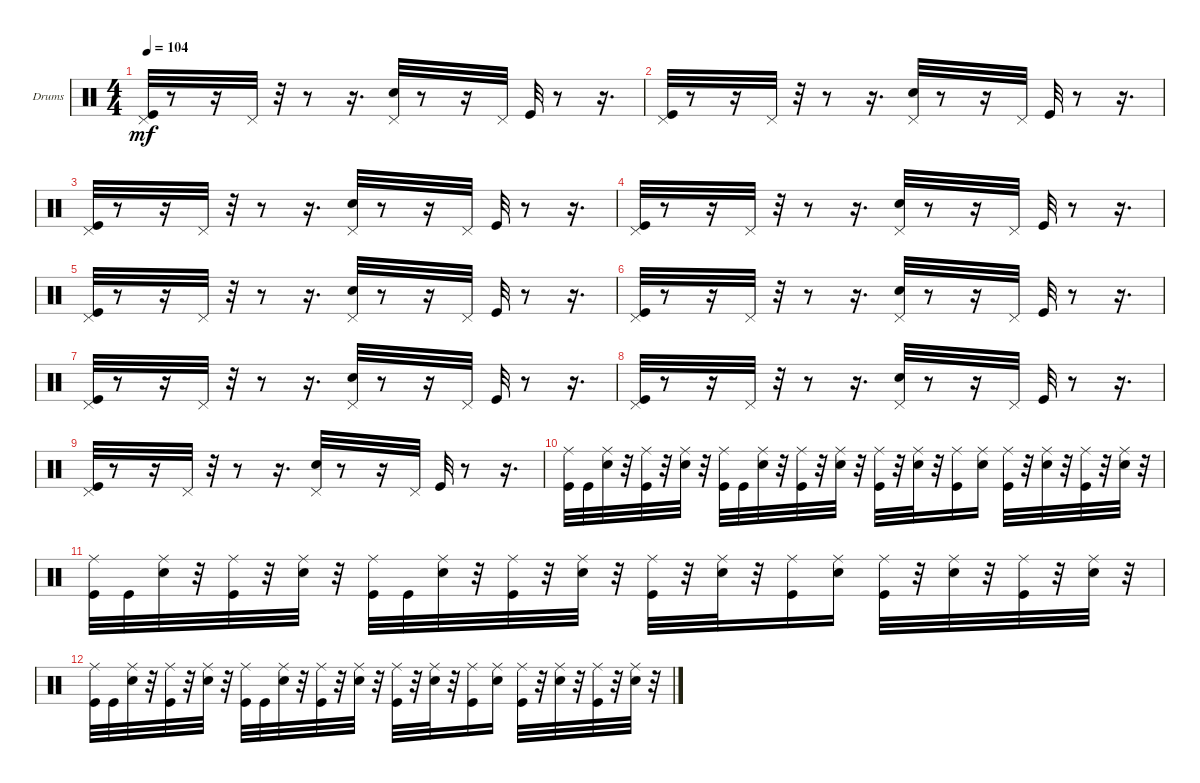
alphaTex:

\bracketExtendMode groupsimilarinstruments
\firstSystemTrackNameOrientation horizontal
\otherSystemsTrackNameOrientation horizontal
\track ("diviners drum" "Drums") {instrument percussion}
\staff {score}
\articulation defaults
\ts (4 4)
\tempo 104
\clef neutral
\ks c
("Kick (hit)" "Pedal Hi-Hat (hit)").32{dy mf} r.8 r.16 "Pedal Hi-Hat (hit)".32 r.32 r.8 r.16{d} ("Snare (hit) 2" "Pedal Hi-Hat (hit)").32 r.8 r.16 "Pedal Hi-Hat (hit)".32 "Kick (hit)".32 r.8 r.16{d} |
("Kick (hit)" "Pedal Hi-Hat (hit)").32 r.8 r.16 "Pedal Hi-Hat (hit)".32 r.32 r.8 r.16{d} ("Snare (hit) 2" "Pedal Hi-Hat (hit)").32 r.8 r.16 "Pedal Hi-Hat (hit)".32 "Kick (hit)".32 r.8 r.16{d} |
("Kick (hit)" "Pedal Hi-Hat (hit)").32 r.8 r.16 "Pedal Hi-Hat (hit)".32 r.32 r.8 r.16{d} ("Snare (hit) 2" "Pedal Hi-Hat (hit)").32 r.8 r.16 "Pedal Hi-Hat (hit)".32 "Kick (hit)".32 r.8 r.16{d} |
("Kick (hit)" "Pedal Hi-Hat (hit)").32 r.8 r.16 "Pedal Hi-Hat (hit)".32 r.32 r.8 r.16{d} ("Snare (hit) 2" "Pedal Hi-Hat (hit)").32 r.8 r.16 "Pedal Hi-Hat (hit)".32 "Kick (hit)".32 r.8 r.16{d} |
("Kick (hit)" "Pedal Hi-Hat (hit)").32 r.8 r.16 "Pedal Hi-Hat (hit)".32 r.32 r.8 r.16{d} ("Snare (hit) 2" "Pedal Hi-Hat (hit)").32 r.8 r.16 "Pedal Hi-Hat (hit)".32 "Kick (hit)".32 r.8 r.16{d} |
("Kick (hit)" "Pedal Hi-Hat (hit)").32 r.8 r.16 "Pedal Hi-Hat (hit)".32 r.32 r.8 r.16{d} ("Snare (hit) 2" "Pedal Hi-Hat (hit)").32 r.8 r.16 "Pedal Hi-Hat (hit)".32 "Kick (hit)".32 r.8 r.16{d} |
("Kick (hit)" "Pedal Hi-Hat (hit)").32 r.8 r.16 "Pedal Hi-Hat (hit)".32 r.32 r.8 r.16{d} ("Snare (hit) 2" "Pedal Hi-Hat (hit)").32 r.8 r.16 "Pedal Hi-Hat (hit)".32 "Kick (hit)".32 r.8 r.16{d} |
("Kick (hit)" "Pedal Hi-Hat (hit)").32 r.8 r.16 "Pedal Hi-Hat (hit)".32 r.32 r.8 r.16{d} ("Snare (hit) 2" "Pedal Hi-Hat (hit)").32 r.8 r.16 "Pedal Hi-Hat (hit)".32 "Kick (hit)".32 r.8 r.16{d} |
("Kick (hit)" "Pedal Hi-Hat (hit)").32 r.8 r.16 "Pedal Hi-Hat (hit)".32 r.32 r.8 r.16{d} ("Snare (hit) 2" "Pedal Hi-Hat (hit)").32 r.8 r.16 "Pedal Hi-Hat (hit)".32 "Kick (hit)".32 r.8 r.16{d} |
("Kick (hit)" "Ride (middle)").32 "Kick (hit)".32 ("Snare (hit) 2" "Ride (middle)").32 r.32 ("Kick (hit)" "Ride (middle)").32 r.32 ("Snare (hit) 2" "Ride (middle)").32 r.32 ("Kick (hit)" "Ride (middle)").32 "Kick (hit)".32 ("Snare (hit) 2" "Ride (middle)").32 r.32 ("Kick (hit)" "Ride (middle)").32 r.32 ("Snare (hit) 2" "Ride (middle)").32 r.32 ("Kick (hit)" "Ride (middle)").32 r.32 ("Snare (hit) 2" "Ride (middle)").32 r.32 ("Kick (hit)" "Ride (middle)").16 ("Snare (hit) 2" "Ride (middle)").16 ("Kick (hit)" "Ride (middle)").32 r.32 ("Snare (hit) 2" "Ride (middle)").32 r.32 ("Kick (hit)" "Ride (middle)").32 r.32 ("Snare (hit) 2" "Ride (middle)").32 r.32 |
("Kick (hit)" "Ride (middle)").32 "Kick (hit)".32 ("Snare (hit) 2" "Ride (middle)").32 r.32 ("Kick (hit)" "Ride (middle)").32 r.32 ("Snare (hit) 2" "Ride (middle)").32 r.32 ("Kick (hit)" "Ride (middle)").32 "Kick (hit)".32 ("Snare (hit) 2" "Ride (middle)").32 r.32 ("Kick (hit)" "Ride (middle)").32 r.32 ("Snare (hit) 2" "Ride (middle)").32 r.32 ("Kick (hit)" "Ride (middle)").32 r.32 ("Snare (hit) 2" "Ride (middle)").32 r.32 ("Kick (hit)" "Ride (middle)").16 ("Snare (hit) 2" "Ride (middle)").16 ("Kick (hit)" "Ride (middle)").32 r.32 ("Snare (hit) 2" "Ride (middle)").32 r.32 ("Kick (hit)" "Ride (middle)").32 r.32 ("Snare (hit) 2" "Ride (middle)").32 r.32 |
("Kick (hit)" "Ride (middle)").32 "Kick (hit)".32 ("Snare (hit) 2" "Ride (middle)").32 r.32 ("Kick (hit)" "Ride (middle)").32 r.32 ("Snare (hit) 2" "Ride (middle)").32 r.32 ("Kick (hit)" "Ride (middle)").32 "Kick (hit)".32 ("Snare (hit) 2" "Ride (middle)").32 r.32 ("Kick (hit)" "Ride (middle)").32 r.32 ("Snare (hit) 2" "Ride (middle)").32 r.32 ("Kick (hit)" "Ride (middle)").32 r.32 ("Snare (hit) 2" "Ride (middle)").32 r.32 ("Kick (hit)" "Ride (middle)").16 ("Snare (hit) 2" "Ride (middle)").16 ("Kick (hit)" "Ride (middle)").32 r.32 ("Snare (hit) 2" "Ride (middle)").32 r.32 ("Kick (hit)" "Ride (middle)").32 r.32 ("Snare (hit) 2" "Ride (middle)").32 r.32
